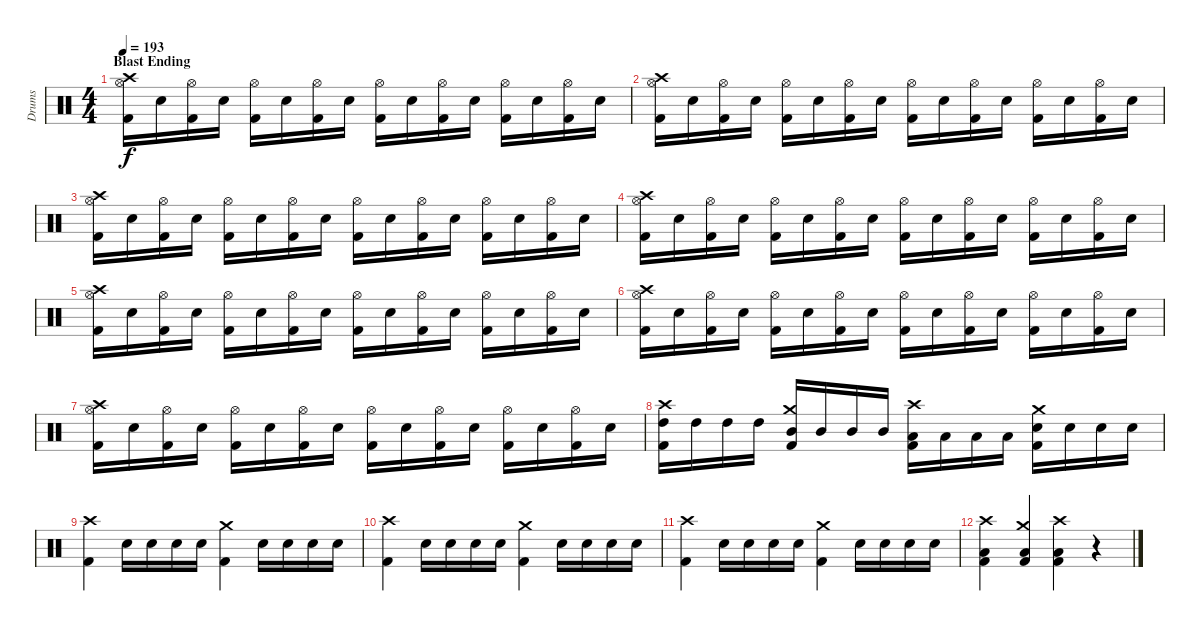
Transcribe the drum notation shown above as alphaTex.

\track ("Drums" "Drums") {instrument percussion}
\staff {score}
\articulation defaults
\ts (4 4)
\section ("" "Blast Ending")
\tempo 193
\clef neutral
\ks c
("Crash high (hit)" "Hi-Hat (open)" "Kick (hit) 2").16{dy f} "Snare (hit) 2".16 ("Hi-Hat (open)" "Kick (hit) 2").16 "Snare (hit) 2".16 ("Hi-Hat (open)" "Kick (hit) 2").16 "Snare (hit) 2".16 ("Hi-Hat (open)" "Kick (hit) 2").16 "Snare (hit) 2".16 ("Hi-Hat (open)" "Kick (hit) 2").16 "Snare (hit) 2".16 ("Hi-Hat (open)" "Kick (hit) 2").16 "Snare (hit) 2".16 ("Hi-Hat (open)" "Kick (hit) 2").16 "Snare (hit) 2".16 ("Hi-Hat (open)" "Kick (hit) 2").16 "Snare (hit) 2".16 |
("Crash high (hit)" "Hi-Hat (open)" "Kick (hit) 2").16 "Snare (hit) 2".16 ("Hi-Hat (open)" "Kick (hit) 2").16 "Snare (hit) 2".16 ("Hi-Hat (open)" "Kick (hit) 2").16 "Snare (hit) 2".16 ("Hi-Hat (open)" "Kick (hit) 2").16 "Snare (hit) 2".16 ("Hi-Hat (open)" "Kick (hit) 2").16 "Snare (hit) 2".16 ("Hi-Hat (open)" "Kick (hit) 2").16 "Snare (hit) 2".16 ("Hi-Hat (open)" "Kick (hit) 2").16 "Snare (hit) 2".16 ("Hi-Hat (open)" "Kick (hit) 2").16 "Snare (hit) 2".16 |
("Crash high (hit)" "Hi-Hat (open)" "Kick (hit) 2").16 "Snare (hit) 2".16 ("Hi-Hat (open)" "Kick (hit) 2").16 "Snare (hit) 2".16 ("Hi-Hat (open)" "Kick (hit) 2").16 "Snare (hit) 2".16 ("Hi-Hat (open)" "Kick (hit) 2").16 "Snare (hit) 2".16 ("Hi-Hat (open)" "Kick (hit) 2").16 "Snare (hit) 2".16 ("Hi-Hat (open)" "Kick (hit) 2").16 "Snare (hit) 2".16 ("Hi-Hat (open)" "Kick (hit) 2").16 "Snare (hit) 2".16 ("Hi-Hat (open)" "Kick (hit) 2").16 "Snare (hit) 2".16 |
("Crash high (hit)" "Hi-Hat (open)" "Kick (hit) 2").16 "Snare (hit) 2".16 ("Hi-Hat (open)" "Kick (hit) 2").16 "Snare (hit) 2".16 ("Hi-Hat (open)" "Kick (hit) 2").16 "Snare (hit) 2".16 ("Hi-Hat (open)" "Kick (hit) 2").16 "Snare (hit) 2".16 ("Hi-Hat (open)" "Kick (hit) 2").16 "Snare (hit) 2".16 ("Hi-Hat (open)" "Kick (hit) 2").16 "Snare (hit) 2".16 ("Hi-Hat (open)" "Kick (hit) 2").16 "Snare (hit) 2".16 ("Hi-Hat (open)" "Kick (hit) 2").16 "Snare (hit) 2".16 |
("Crash high (hit)" "Hi-Hat (open)" "Kick (hit) 2").16 "Snare (hit) 2".16 ("Hi-Hat (open)" "Kick (hit) 2").16 "Snare (hit) 2".16 ("Hi-Hat (open)" "Kick (hit) 2").16 "Snare (hit) 2".16 ("Hi-Hat (open)" "Kick (hit) 2").16 "Snare (hit) 2".16 ("Hi-Hat (open)" "Kick (hit) 2").16 "Snare (hit) 2".16 ("Hi-Hat (open)" "Kick (hit) 2").16 "Snare (hit) 2".16 ("Hi-Hat (open)" "Kick (hit) 2").16 "Snare (hit) 2".16 ("Hi-Hat (open)" "Kick (hit) 2").16 "Snare (hit) 2".16 |
("Crash high (hit)" "Hi-Hat (open)" "Kick (hit) 2").16 "Snare (hit) 2".16 ("Hi-Hat (open)" "Kick (hit) 2").16 "Snare (hit) 2".16 ("Hi-Hat (open)" "Kick (hit) 2").16 "Snare (hit) 2".16 ("Hi-Hat (open)" "Kick (hit) 2").16 "Snare (hit) 2".16 ("Hi-Hat (open)" "Kick (hit) 2").16 "Snare (hit) 2".16 ("Hi-Hat (open)" "Kick (hit) 2").16 "Snare (hit) 2".16 ("Hi-Hat (open)" "Kick (hit) 2").16 "Snare (hit) 2".16 ("Hi-Hat (open)" "Kick (hit) 2").16 "Snare (hit) 2".16 |
("Crash high (hit)" "Hi-Hat (open)" "Kick (hit) 2").16 "Snare (hit) 2".16 ("Hi-Hat (open)" "Kick (hit) 2").16 "Snare (hit) 2".16 ("Hi-Hat (open)" "Kick (hit) 2").16 "Snare (hit) 2".16 ("Hi-Hat (open)" "Kick (hit) 2").16 "Snare (hit) 2".16 ("Hi-Hat (open)" "Kick (hit) 2").16 "Snare (hit) 2".16 ("Hi-Hat (open)" "Kick (hit) 2").16 "Snare (hit) 2".16 ("Hi-Hat (open)" "Kick (hit) 2").16 "Snare (hit) 2".16 ("Hi-Hat (open)" "Kick (hit) 2").16 "Snare (hit) 2".16 |
("Crash high (hit)" "High Tom (hit)" "Kick (hit) 2").16 "High Tom (hit)".16 "High Tom (hit)".16 "High Tom (hit)".16 ("Crash medium (hit)" "Mid Tom (hit)" "Kick (hit) 2").16 "Mid Tom (hit)".16 "Mid Tom (hit)".16 "Mid Tom (hit)".16 ("Crash high (hit)" "Low Tom (hit)" "Kick (hit) 2").16 "Low Tom (hit)".16 "Low Tom (hit)".16 "Low Tom (hit)".16 ("Crash medium (hit)" "Snare (hit) 2" "Kick (hit) 2").16 "Snare (hit) 2".16 "Snare (hit) 2".16 "Snare (hit) 2".16 |
("Crash high (hit)" "Kick (hit) 2").4 "Snare (hit) 2".16 "Snare (hit) 2".16 "Snare (hit) 2".16 "Snare (hit) 2".16 ("Crash medium (hit)" "Kick (hit) 2").4 "Snare (hit) 2".16 "Snare (hit) 2".16 "Snare (hit) 2".16 "Snare (hit) 2".16 |
("Crash high (hit)" "Kick (hit) 2").4 "Snare (hit) 2".16 "Snare (hit) 2".16 "Snare (hit) 2".16 "Snare (hit) 2".16 ("Crash medium (hit)" "Kick (hit) 2").4 "Snare (hit) 2".16 "Snare (hit) 2".16 "Snare (hit) 2".16 "Snare (hit) 2".16 |
("Crash high (hit)" "Kick (hit) 2").4 "Snare (hit) 2".16 "Snare (hit) 2".16 "Snare (hit) 2".16 "Snare (hit) 2".16 ("Crash medium (hit)" "Kick (hit) 2").4 "Snare (hit) 2".16 "Snare (hit) 2".16 "Snare (hit) 2".16 "Snare (hit) 2".16 |
("Crash high (hit)" "Low Floor Tom (hit)" "Kick (hit) 2").4 ("Crash medium (hit)" "Low Floor Tom (hit)" "Kick (hit) 2").4 ("Crash high (hit)" "Low Floor Tom (hit)" "Kick (hit) 2").4 r.4
